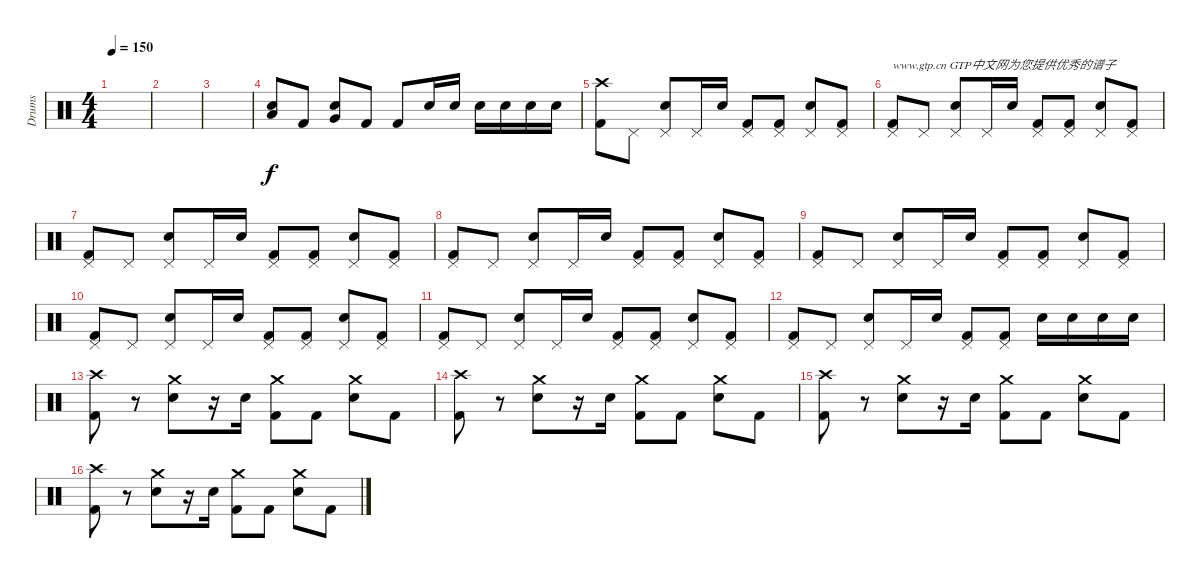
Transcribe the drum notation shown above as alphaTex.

\track ("Drums" "Drums") {instrument percussion}
\staff {score}
\articulation defaults
\ts (4 4)
\tempo 150
\clef neutral
\ks c
|
|
|
("Electric Snare (hit)" "Low Floor Tom (hit)").8 "Kick (hit) 2".8 ("Electric Snare (hit)" "Very Low Tom (hit)").8 "Kick (hit) 2".8 "Kick (hit) 2".8 "Electric Snare (hit)".16 "Electric Snare (hit)".16 "Electric Snare (hit)".16 "Electric Snare (hit)".16 "Electric Snare (hit)".16 "Electric Snare (hit)".16 |
("Crash high (hit)" "Kick (hit) 2").8 "Pedal Hi-Hat (hit)".8 ("Pedal Hi-Hat (hit)" "Electric Snare (hit)").8 "Pedal Hi-Hat (hit)".16 "Electric Snare (hit)".16 ("Pedal Hi-Hat (hit)" "Kick (hit) 2").8 ("Pedal Hi-Hat (hit)" "Kick (hit) 2").8 ("Pedal Hi-Hat (hit)" "Electric Snare (hit)").8 ("Pedal Hi-Hat (hit)" "Kick (hit) 2").8 |
("Pedal Hi-Hat (hit)" "Kick (hit) 2").8{txt "www.gtp.cn GTP中文网为您提供优秀的谱子"} "Pedal Hi-Hat (hit)".8 ("Pedal Hi-Hat (hit)" "Electric Snare (hit)").8 "Pedal Hi-Hat (hit)".16 "Electric Snare (hit)".16 ("Pedal Hi-Hat (hit)" "Kick (hit) 2").8 ("Pedal Hi-Hat (hit)" "Kick (hit) 2").8 ("Pedal Hi-Hat (hit)" "Electric Snare (hit)").8 ("Pedal Hi-Hat (hit)" "Kick (hit) 2").8 |
("Pedal Hi-Hat (hit)" "Kick (hit) 2").8 "Pedal Hi-Hat (hit)".8 ("Pedal Hi-Hat (hit)" "Electric Snare (hit)").8 "Pedal Hi-Hat (hit)".16 "Electric Snare (hit)".16 ("Pedal Hi-Hat (hit)" "Kick (hit) 2").8 ("Pedal Hi-Hat (hit)" "Kick (hit) 2").8 ("Pedal Hi-Hat (hit)" "Electric Snare (hit)").8 ("Pedal Hi-Hat (hit)" "Kick (hit) 2").8 |
("Pedal Hi-Hat (hit)" "Kick (hit) 2").8 "Pedal Hi-Hat (hit)".8 ("Pedal Hi-Hat (hit)" "Electric Snare (hit)").8 "Pedal Hi-Hat (hit)".16 "Electric Snare (hit)".16 ("Pedal Hi-Hat (hit)" "Kick (hit) 2").8 ("Pedal Hi-Hat (hit)" "Kick (hit) 2").8 ("Pedal Hi-Hat (hit)" "Electric Snare (hit)").8 ("Pedal Hi-Hat (hit)" "Kick (hit) 2").8 |
("Pedal Hi-Hat (hit)" "Kick (hit) 2").8 "Pedal Hi-Hat (hit)".8 ("Pedal Hi-Hat (hit)" "Electric Snare (hit)").8 "Pedal Hi-Hat (hit)".16 "Electric Snare (hit)".16 ("Pedal Hi-Hat (hit)" "Kick (hit) 2").8 ("Pedal Hi-Hat (hit)" "Kick (hit) 2").8 ("Pedal Hi-Hat (hit)" "Electric Snare (hit)").8 ("Pedal Hi-Hat (hit)" "Kick (hit) 2").8 |
("Pedal Hi-Hat (hit)" "Kick (hit) 2").8 "Pedal Hi-Hat (hit)".8 ("Pedal Hi-Hat (hit)" "Electric Snare (hit)").8 "Pedal Hi-Hat (hit)".16 "Electric Snare (hit)".16 ("Pedal Hi-Hat (hit)" "Kick (hit) 2").8 ("Pedal Hi-Hat (hit)" "Kick (hit) 2").8 ("Pedal Hi-Hat (hit)" "Electric Snare (hit)").8 ("Pedal Hi-Hat (hit)" "Kick (hit) 2").8 |
("Pedal Hi-Hat (hit)" "Kick (hit) 2").8 "Pedal Hi-Hat (hit)".8 ("Pedal Hi-Hat (hit)" "Electric Snare (hit)").8 "Pedal Hi-Hat (hit)".16 "Electric Snare (hit)".16 ("Pedal Hi-Hat (hit)" "Kick (hit) 2").8 ("Pedal Hi-Hat (hit)" "Kick (hit) 2").8 ("Pedal Hi-Hat (hit)" "Electric Snare (hit)").8 ("Pedal Hi-Hat (hit)" "Kick (hit) 2").8 |
("Pedal Hi-Hat (hit)" "Kick (hit) 2").8 "Pedal Hi-Hat (hit)".8 ("Pedal Hi-Hat (hit)" "Electric Snare (hit)").8 "Pedal Hi-Hat (hit)".16 "Electric Snare (hit)".16 ("Pedal Hi-Hat (hit)" "Kick (hit) 2").8 ("Pedal Hi-Hat (hit)" "Kick (hit) 2").8 "Electric Snare (hit)".16 "Electric Snare (hit)".16 "Electric Snare (hit)".16 "Electric Snare (hit)".16 |
("Crash high (hit)" "Kick (hit) 2").8 r.8 ("Crash medium (hit)" "Electric Snare (hit)").8 r.16 "Electric Snare (hit)".16 ("Crash medium (hit)" "Kick (hit) 2").8 "Kick (hit) 2".8 ("Crash medium (hit)" "Electric Snare (hit)").8 "Kick (hit) 2".8 |
("Crash high (hit)" "Kick (hit) 2").8 r.8 ("Crash medium (hit)" "Electric Snare (hit)").8 r.16 "Electric Snare (hit)".16 ("Crash medium (hit)" "Kick (hit) 2").8 "Kick (hit) 2".8 ("Crash medium (hit)" "Electric Snare (hit)").8 "Kick (hit) 2".8 |
("Crash high (hit)" "Kick (hit) 2").8 r.8 ("Crash medium (hit)" "Electric Snare (hit)").8 r.16 "Electric Snare (hit)".16 ("Crash medium (hit)" "Kick (hit) 2").8 "Kick (hit) 2".8 ("Crash medium (hit)" "Electric Snare (hit)").8 "Kick (hit) 2".8 |
("Crash high (hit)" "Kick (hit) 2").8 r.8 ("Crash medium (hit)" "Electric Snare (hit)").8 r.16 "Electric Snare (hit)".16 ("Crash medium (hit)" "Kick (hit) 2").8 "Kick (hit) 2".8 ("Crash medium (hit)" "Electric Snare (hit)").8 "Kick (hit) 2".8
